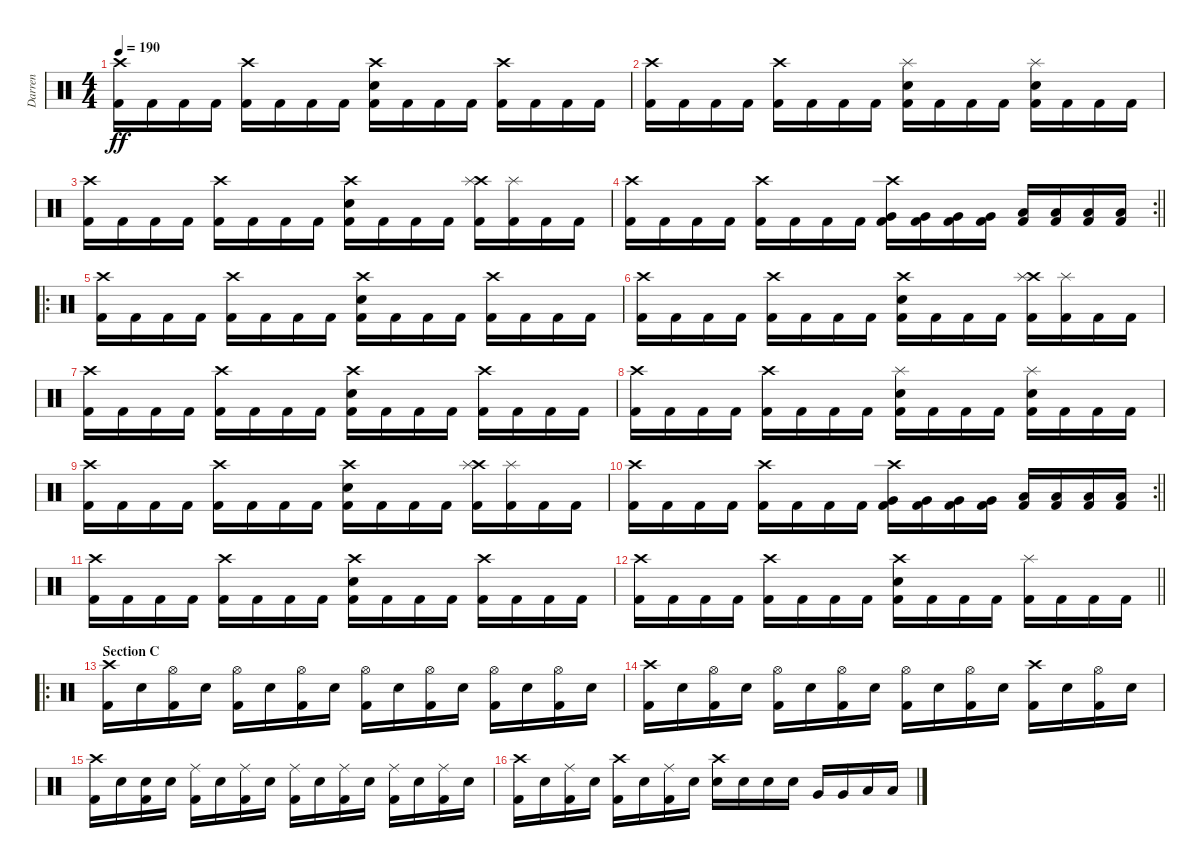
\track ("Darren" "Darren") {instrument percussion}
\staff {score}
\articulation defaults
\ts (4 4)
\tempo 190
\clef neutral
\ks c
("Crash high (hit)" "Kick (hit) 2").16{dy ff} "Kick (hit) 2".16 "Kick (hit) 2".16 "Kick (hit) 2".16 ("Crash high (hit)" "Kick (hit) 2").16 "Kick (hit) 2".16 "Kick (hit) 2".16 "Kick (hit) 2".16 ("Crash high (hit)" "Electric Snare (hit)" "Kick (hit) 2").16 "Kick (hit) 2".16 "Kick (hit) 2".16 "Kick (hit) 2".16 ("Crash high (hit)" "Kick (hit) 2").16 "Kick (hit) 2".16 "Kick (hit) 2".16 "Kick (hit) 2".16 |
("Crash high (hit)" "Kick (hit) 2").16 "Kick (hit) 2".16 "Kick (hit) 2".16 "Kick (hit) 2".16 ("Crash high (hit)" "Kick (hit) 2").16 "Kick (hit) 2".16 "Kick (hit) 2".16 "Kick (hit) 2".16 ("Splash (hit)" "Electric Snare (hit)" "Kick (hit) 2").16 "Kick (hit) 2".16 "Kick (hit) 2".16 "Kick (hit) 2".16 ("Splash (hit)" "Electric Snare (hit)" "Kick (hit) 2").16 "Kick (hit) 2".16 "Kick (hit) 2".16 "Kick (hit) 2".16 |
("Crash high (hit)" "Kick (hit) 2").16 "Kick (hit) 2".16 "Kick (hit) 2".16 "Kick (hit) 2".16 ("Crash high (hit)" "Kick (hit) 2").16 "Kick (hit) 2".16 "Kick (hit) 2".16 "Kick (hit) 2".16 ("Crash high (hit)" "Electric Snare (hit)" "Kick (hit) 2").16 "Kick (hit) 2".16 "Kick (hit) 2".16 "Kick (hit) 2".16 ("Crash high (hit)" "Splash (hit)" "Kick (hit) 2").16 ("Splash (hit)" "Kick (hit) 2").16 "Kick (hit) 2".16 "Kick (hit) 2".16 |
\rc 2
\barLineRight lightlight
("Crash high (hit)" "Kick (hit) 2").16 "Kick (hit) 2".16 "Kick (hit) 2".16 "Kick (hit) 2".16 ("Crash high (hit)" "Kick (hit) 2").16 "Kick (hit) 2".16 "Kick (hit) 2".16 "Kick (hit) 2".16 ("Crash high (hit)" "Very Low Tom (hit)" "Kick (hit) 2").16 ("Very Low Tom (hit)" "Kick (hit) 2").16 ("Very Low Tom (hit)" "Kick (hit) 2").16 ("Very Low Tom (hit)" "Kick (hit) 2").16 ("Low Floor Tom (hit)" "Kick (hit) 2").16 ("Low Floor Tom (hit)" "Kick (hit) 2").16 ("Low Floor Tom (hit)" "Kick (hit) 2").16 ("Low Floor Tom (hit)" "Kick (hit) 2").16 |
\ro
\section ("" "")
("Crash high (hit)" "Kick (hit) 2").16 "Kick (hit) 2".16 "Kick (hit) 2".16 "Kick (hit) 2".16 ("Crash high (hit)" "Kick (hit) 2").16 "Kick (hit) 2".16 "Kick (hit) 2".16 "Kick (hit) 2".16 ("Crash high (hit)" "Electric Snare (hit)" "Kick (hit) 2").16 "Kick (hit) 2".16 "Kick (hit) 2".16 "Kick (hit) 2".16 ("Crash high (hit)" "Kick (hit) 2").16 "Kick (hit) 2".16 "Kick (hit) 2".16 "Kick (hit) 2".16 |
("Crash high (hit)" "Kick (hit) 2").16 "Kick (hit) 2".16 "Kick (hit) 2".16 "Kick (hit) 2".16 ("Crash high (hit)" "Kick (hit) 2").16 "Kick (hit) 2".16 "Kick (hit) 2".16 "Kick (hit) 2".16 ("Crash high (hit)" "Electric Snare (hit)" "Kick (hit) 2").16 "Kick (hit) 2".16 "Kick (hit) 2".16 "Kick (hit) 2".16 ("Crash high (hit)" "Splash (hit)" "Kick (hit) 2").16 ("Splash (hit)" "Kick (hit) 2").16 "Kick (hit) 2".16 "Kick (hit) 2".16 |
("Crash high (hit)" "Kick (hit) 2").16 "Kick (hit) 2".16 "Kick (hit) 2".16 "Kick (hit) 2".16 ("Crash high (hit)" "Kick (hit) 2").16 "Kick (hit) 2".16 "Kick (hit) 2".16 "Kick (hit) 2".16 ("Crash high (hit)" "Electric Snare (hit)" "Kick (hit) 2").16 "Kick (hit) 2".16 "Kick (hit) 2".16 "Kick (hit) 2".16 ("Crash high (hit)" "Kick (hit) 2").16 "Kick (hit) 2".16 "Kick (hit) 2".16 "Kick (hit) 2".16 |
("Crash high (hit)" "Kick (hit) 2").16 "Kick (hit) 2".16 "Kick (hit) 2".16 "Kick (hit) 2".16 ("Crash high (hit)" "Kick (hit) 2").16 "Kick (hit) 2".16 "Kick (hit) 2".16 "Kick (hit) 2".16 ("Splash (hit)" "Electric Snare (hit)" "Kick (hit) 2").16 "Kick (hit) 2".16 "Kick (hit) 2".16 "Kick (hit) 2".16 ("Splash (hit)" "Electric Snare (hit)" "Kick (hit) 2").16 "Kick (hit) 2".16 "Kick (hit) 2".16 "Kick (hit) 2".16 |
("Crash high (hit)" "Kick (hit) 2").16 "Kick (hit) 2".16 "Kick (hit) 2".16 "Kick (hit) 2".16 ("Crash high (hit)" "Kick (hit) 2").16 "Kick (hit) 2".16 "Kick (hit) 2".16 "Kick (hit) 2".16 ("Crash high (hit)" "Electric Snare (hit)" "Kick (hit) 2").16 "Kick (hit) 2".16 "Kick (hit) 2".16 "Kick (hit) 2".16 ("Crash high (hit)" "Splash (hit)" "Kick (hit) 2").16 ("Splash (hit)" "Kick (hit) 2").16 "Kick (hit) 2".16 "Kick (hit) 2".16 |
\rc 2
\barLineRight lightlight
("Crash high (hit)" "Kick (hit) 2").16 "Kick (hit) 2".16 "Kick (hit) 2".16 "Kick (hit) 2".16 ("Crash high (hit)" "Kick (hit) 2").16 "Kick (hit) 2".16 "Kick (hit) 2".16 "Kick (hit) 2".16 ("Crash high (hit)" "Very Low Tom (hit)" "Kick (hit) 2").16 ("Very Low Tom (hit)" "Kick (hit) 2").16 ("Very Low Tom (hit)" "Kick (hit) 2").16 ("Very Low Tom (hit)" "Kick (hit) 2").16 ("Low Floor Tom (hit)" "Kick (hit) 2").16 ("Low Floor Tom (hit)" "Kick (hit) 2").16 ("Low Floor Tom (hit)" "Kick (hit) 2").16 ("Low Floor Tom (hit)" "Kick (hit) 2").16 |
("Crash high (hit)" "Kick (hit) 2").16 "Kick (hit) 2".16 "Kick (hit) 2".16 "Kick (hit) 2".16 ("Crash high (hit)" "Kick (hit) 2").16 "Kick (hit) 2".16 "Kick (hit) 2".16 "Kick (hit) 2".16 ("Crash high (hit)" "Electric Snare (hit)" "Kick (hit) 2").16 "Kick (hit) 2".16 "Kick (hit) 2".16 "Kick (hit) 2".16 ("Crash high (hit)" "Kick (hit) 2").16 "Kick (hit) 2".16 "Kick (hit) 2".16 "Kick (hit) 2".16 |
\barLineRight lightlight
("Crash high (hit)" "Kick (hit) 2").16 "Kick (hit) 2".16 "Kick (hit) 2".16 "Kick (hit) 2".16 ("Crash high (hit)" "Kick (hit) 2").16 "Kick (hit) 2".16 "Kick (hit) 2".16 "Kick (hit) 2".16 ("Crash high (hit)" "Electric Snare (hit)" "Kick (hit) 2").16 "Kick (hit) 2".16 "Kick (hit) 2".16 "Kick (hit) 2".16 ("Splash (hit)" "Kick (hit) 2").16 "Kick (hit) 2".16 "Kick (hit) 2".16 "Kick (hit) 2".16 |
\ro
\section ("" "Section C")
("Crash high (hit)" "Kick (hit) 2").16 "Electric Snare (hit)".16 ("Hi-Hat (open)" "Kick (hit) 2").16 "Electric Snare (hit)".16 ("Hi-Hat (open)" "Kick (hit) 2").16 "Electric Snare (hit)".16 ("Hi-Hat (open)" "Kick (hit) 2").16 "Electric Snare (hit)".16 ("Hi-Hat (open)" "Kick (hit) 2").16 "Electric Snare (hit)".16 ("Hi-Hat (open)" "Kick (hit) 2").16 "Electric Snare (hit)".16 ("Hi-Hat (open)" "Kick (hit) 2").16 "Electric Snare (hit)".16 ("Hi-Hat (open)" "Kick (hit) 2").16 "Electric Snare (hit)".16 |
("Crash high (hit)" "Kick (hit) 2").16 "Electric Snare (hit)".16 ("Hi-Hat (open)" "Kick (hit) 2").16 "Electric Snare (hit)".16 ("Hi-Hat (open)" "Kick (hit) 2").16 "Electric Snare (hit)".16 ("Hi-Hat (open)" "Kick (hit) 2").16 "Electric Snare (hit)".16 ("Hi-Hat (open)" "Kick (hit) 2").16 "Electric Snare (hit)".16 ("Hi-Hat (open)" "Kick (hit) 2").16 "Electric Snare (hit)".16 ("Crash high (hit)" "Kick (hit) 2").16 "Electric Snare (hit)".16 ("Hi-Hat (open)" "Kick (hit) 2").16 "Electric Snare (hit)".16 |
("Crash high (hit)" "Kick (hit) 2").16 "Electric Snare (hit)".16 ("Snare (hit)" "Kick (hit) 2").16 "Electric Snare (hit)".16 ("Ride (middle)" "Kick (hit) 2").16 "Electric Snare (hit)".16 ("Ride (middle)" "Kick (hit) 2").16 "Electric Snare (hit)".16 ("Ride (middle)" "Kick (hit) 2").16 "Electric Snare (hit)".16 ("Ride (middle)" "Kick (hit) 2").16 "Electric Snare (hit)".16 ("Ride (middle)" "Kick (hit) 2").16 "Electric Snare (hit)".16 ("Ride (middle)" "Kick (hit) 2").16 "Electric Snare (hit)".16 |
("Crash high (hit)" "Kick (hit) 2").16 "Electric Snare (hit)".16 ("Ride (middle)" "Kick (hit) 2").16 "Electric Snare (hit)".16 ("Crash high (hit)" "Kick (hit) 2").16 "Electric Snare (hit)".16 ("Ride (middle)" "Kick (hit) 2").16 "Electric Snare (hit)".16 ("Crash high (hit)" "Electric Snare (hit)").16 "Electric Snare (hit)".16 "Electric Snare (hit)".16 "Electric Snare (hit)".16 "Very Low Tom (hit)".16 "Very Low Tom (hit)".16 "Low Floor Tom (hit)".16 "Low Floor Tom (hit)".16
